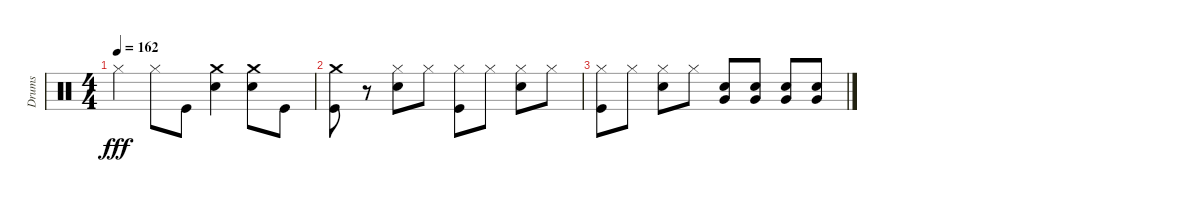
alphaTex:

\track ("Drums" "Drums") {instrument percussion}
\staff {score}
\articulation defaults
\ts (4 4)
\tempo 162
\clef neutral
\ks c "Hi-Hat (closed)".4{dy fff} "Hi-Hat (closed)".8 "Kick (hit)".8
("Crash medium (hit)" "Snare (hit) 2").4 ("Snare (hit) 2" "Crash medium (hit)").8 "Kick (hit)".8 |
("Crash medium (hit)" "Kick (hit)").8 r.8 ("Snare (hit) 2" "Hi-Hat (closed)").8 "Hi-Hat (closed)".8 ("Kick (hit)" "Hi-Hat (closed)").8 "Hi-Hat (closed)".8 ("Snare (hit) 2" "Hi-Hat (closed)").8 "Hi-Hat (closed)".8 |
("Hi-Hat (closed)" "Kick (hit)").8 "Hi-Hat (closed)".8 ("Snare (hit) 2" "Hi-Hat (closed)").8 "Hi-Hat (closed)".8 ("Very Low Tom (hit)" "Snare (hit) 2").8 ("Very Low Tom (hit)" "Snare (hit) 2").8 ("Very Low Tom (hit)" "Snare (hit) 2").8 ("Very Low Tom (hit)" "Snare (hit) 2").8
